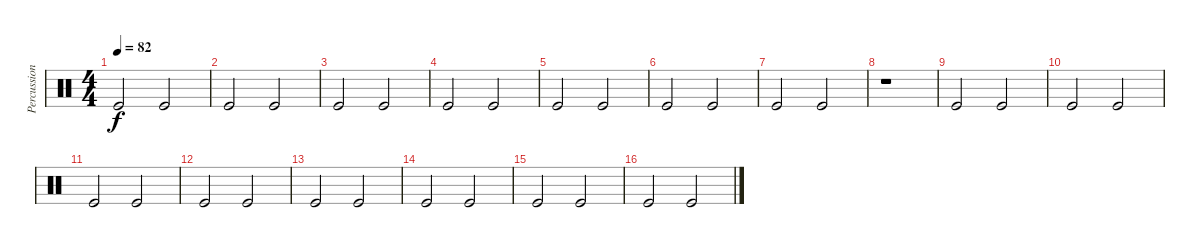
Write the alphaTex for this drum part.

\track ("Percussion" "Percussion") {instrument percussion}
\staff {score}
\articulation defaults
\ts (4 4)
\tempo 82
\clef neutral
\ks c "Kick (hit)".2{dy f} "Kick (hit)".2
|
"Kick (hit)".2 "Kick (hit)".2 |
"Kick (hit)".2 "Kick (hit)".2 |
"Kick (hit)".2 "Kick (hit)".2 |
"Kick (hit)".2 "Kick (hit)".2 |
"Kick (hit)".2 "Kick (hit)".2 |
"Kick (hit)".2 "Kick (hit)".2 |
r.1 |
"Kick (hit)".2 "Kick (hit)".2 |
"Kick (hit)".2 "Kick (hit)".2 |
"Kick (hit)".2 "Kick (hit)".2 |
"Kick (hit)".2 "Kick (hit)".2 |
"Kick (hit)".2 "Kick (hit)".2 |
"Kick (hit)".2 "Kick (hit)".2 |
"Kick (hit)".2 "Kick (hit)".2 |
"Kick (hit)".2 "Kick (hit)".2
